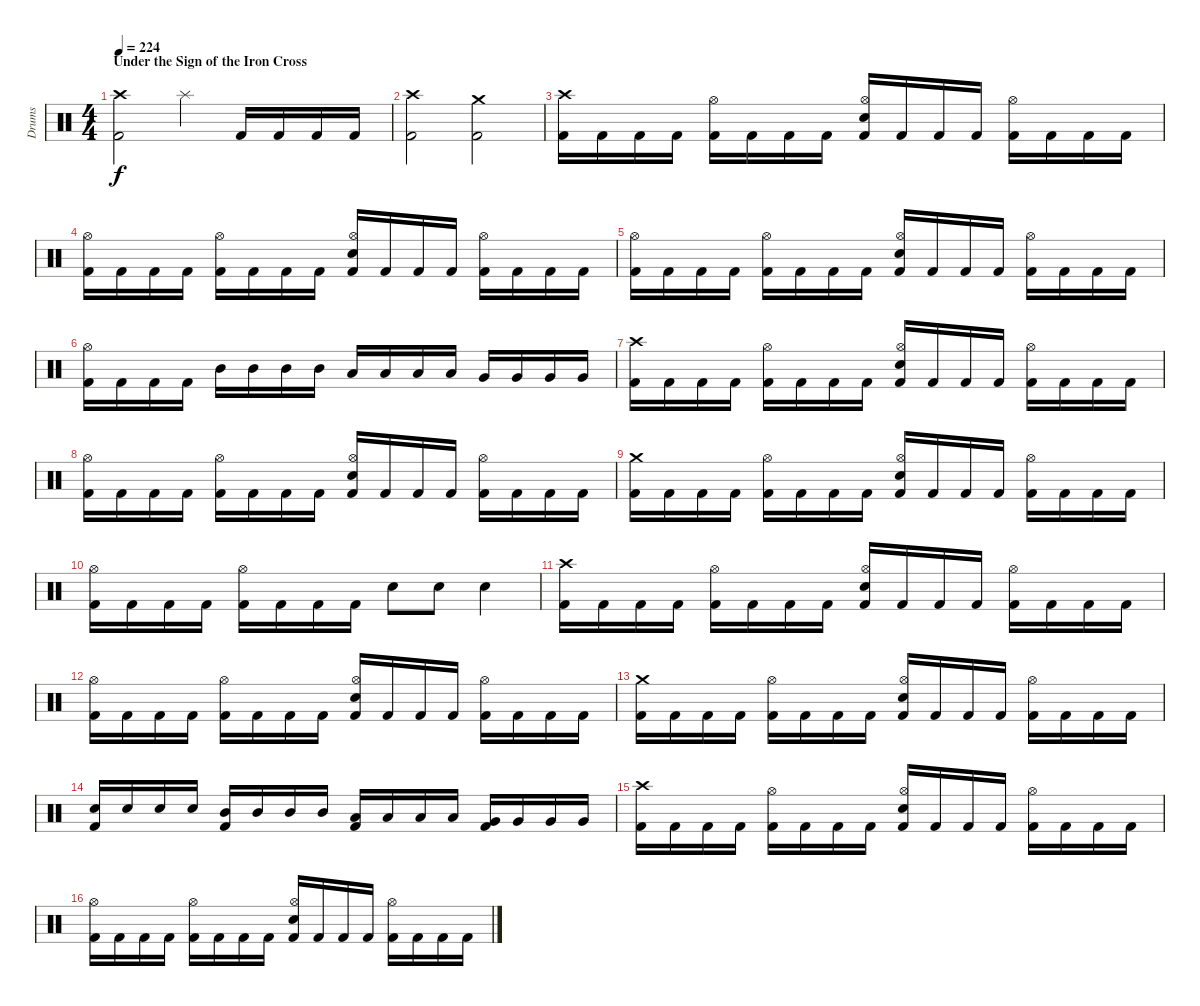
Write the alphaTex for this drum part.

\track ("Drums" "Drums") {instrument percussion}
\staff {score}
\articulation defaults
\ts (4 4)
\section ("" "Under the Sign of the Iron Cross")
\tempo 224
\clef neutral
\ks c
("Crash high (hit)" "Kick (hit) 2").2{dy f} "Splash (hit)".4 "Kick (hit) 2".16 "Kick (hit) 2".16 "Kick (hit) 2".16 "Kick (hit) 2".16 |
("Crash high (hit)" "Kick (hit) 2").2 ("Crash medium (hit)" "Kick (hit) 2").2 |
("Crash high (hit)" "Kick (hit) 2").16 "Kick (hit) 2".16 "Kick (hit) 2".16 "Kick (hit) 2".16 ("Hi-Hat (open)" "Kick (hit) 2").16 "Kick (hit) 2".16 "Kick (hit) 2".16 "Kick (hit) 2".16 ("Hi-Hat (open)" "Electric Snare (hit)" "Kick (hit) 2").16 "Kick (hit) 2".16 "Kick (hit) 2".16 "Kick (hit) 2".16 ("Hi-Hat (open)" "Kick (hit) 2").16 "Kick (hit) 2".16 "Kick (hit) 2".16 "Kick (hit) 2".16 |
("Hi-Hat (open)" "Kick (hit) 2").16 "Kick (hit) 2".16 "Kick (hit) 2".16 "Kick (hit) 2".16 ("Hi-Hat (open)" "Kick (hit) 2").16 "Kick (hit) 2".16 "Kick (hit) 2".16 "Kick (hit) 2".16 ("Hi-Hat (open)" "Electric Snare (hit)" "Kick (hit) 2").16 "Kick (hit) 2".16 "Kick (hit) 2".16 "Kick (hit) 2".16 ("Hi-Hat (open)" "Kick (hit) 2").16 "Kick (hit) 2".16 "Kick (hit) 2".16 "Kick (hit) 2".16 |
("Hi-Hat (open)" "Kick (hit) 2").16 "Kick (hit) 2".16 "Kick (hit) 2".16 "Kick (hit) 2".16 ("Hi-Hat (open)" "Kick (hit) 2").16 "Kick (hit) 2".16 "Kick (hit) 2".16 "Kick (hit) 2".16 ("Hi-Hat (open)" "Electric Snare (hit)" "Kick (hit) 2").16 "Kick (hit) 2".16 "Kick (hit) 2".16 "Kick (hit) 2".16 ("Hi-Hat (open)" "Kick (hit) 2").16 "Kick (hit) 2".16 "Kick (hit) 2".16 "Kick (hit) 2".16 |
("Hi-Hat (open)" "Kick (hit) 2").16 "Kick (hit) 2".16 "Kick (hit) 2".16 "Kick (hit) 2".16 "Mid Tom (hit)".16 "Mid Tom (hit)".16 "Mid Tom (hit)".16 "Mid Tom (hit)".16 "Low Tom (hit)".16 "Low Tom (hit)".16 "Low Tom (hit)".16 "Low Tom (hit)".16 "Very Low Tom (hit)".16 "Very Low Tom (hit)".16 "Very Low Tom (hit)".16 "Very Low Tom (hit)".16 |
("Crash high (hit)" "Kick (hit) 2").16 "Kick (hit) 2".16 "Kick (hit) 2".16 "Kick (hit) 2".16 ("Hi-Hat (open)" "Kick (hit) 2").16 "Kick (hit) 2".16 "Kick (hit) 2".16 "Kick (hit) 2".16 ("Hi-Hat (open)" "Electric Snare (hit)" "Kick (hit) 2").16 "Kick (hit) 2".16 "Kick (hit) 2".16 "Kick (hit) 2".16 ("Hi-Hat (open)" "Kick (hit) 2").16 "Kick (hit) 2".16 "Kick (hit) 2".16 "Kick (hit) 2".16 |
("Hi-Hat (open)" "Kick (hit) 2").16 "Kick (hit) 2".16 "Kick (hit) 2".16 "Kick (hit) 2".16 ("Hi-Hat (open)" "Kick (hit) 2").16 "Kick (hit) 2".16 "Kick (hit) 2".16 "Kick (hit) 2".16 ("Hi-Hat (open)" "Electric Snare (hit)" "Kick (hit) 2").16 "Kick (hit) 2".16 "Kick (hit) 2".16 "Kick (hit) 2".16 ("Hi-Hat (open)" "Kick (hit) 2").16 "Kick (hit) 2".16 "Kick (hit) 2".16 "Kick (hit) 2".16 |
("Crash medium (hit)" "Kick (hit) 2").16 "Kick (hit) 2".16 "Kick (hit) 2".16 "Kick (hit) 2".16 ("Hi-Hat (open)" "Kick (hit) 2").16 "Kick (hit) 2".16 "Kick (hit) 2".16 "Kick (hit) 2".16 ("Hi-Hat (open)" "Electric Snare (hit)" "Kick (hit) 2").16 "Kick (hit) 2".16 "Kick (hit) 2".16 "Kick (hit) 2".16 ("Hi-Hat (open)" "Kick (hit) 2").16 "Kick (hit) 2".16 "Kick (hit) 2".16 "Kick (hit) 2".16 |
("Hi-Hat (open)" "Kick (hit) 2").16 "Kick (hit) 2".16 "Kick (hit) 2".16 "Kick (hit) 2".16 ("Hi-Hat (open)" "Kick (hit) 2").16 "Kick (hit) 2".16 "Kick (hit) 2".16 "Kick (hit) 2".16 "Electric Snare (hit)".8 "Electric Snare (hit)".8 "Electric Snare (hit)".4 |
("Crash high (hit)" "Kick (hit) 2").16 "Kick (hit) 2".16 "Kick (hit) 2".16 "Kick (hit) 2".16 ("Hi-Hat (open)" "Kick (hit) 2").16 "Kick (hit) 2".16 "Kick (hit) 2".16 "Kick (hit) 2".16 ("Hi-Hat (open)" "Electric Snare (hit)" "Kick (hit) 2").16 "Kick (hit) 2".16 "Kick (hit) 2".16 "Kick (hit) 2".16 ("Hi-Hat (open)" "Kick (hit) 2").16 "Kick (hit) 2".16 "Kick (hit) 2".16 "Kick (hit) 2".16 |
("Hi-Hat (open)" "Kick (hit) 2").16 "Kick (hit) 2".16 "Kick (hit) 2".16 "Kick (hit) 2".16 ("Hi-Hat (open)" "Kick (hit) 2").16 "Kick (hit) 2".16 "Kick (hit) 2".16 "Kick (hit) 2".16 ("Hi-Hat (open)" "Electric Snare (hit)" "Kick (hit) 2").16 "Kick (hit) 2".16 "Kick (hit) 2".16 "Kick (hit) 2".16 ("Hi-Hat (open)" "Kick (hit) 2").16 "Kick (hit) 2".16 "Kick (hit) 2".16 "Kick (hit) 2".16 |
("Crash medium (hit)" "Kick (hit) 2").16 "Kick (hit) 2".16 "Kick (hit) 2".16 "Kick (hit) 2".16 ("Hi-Hat (open)" "Kick (hit) 2").16 "Kick (hit) 2".16 "Kick (hit) 2".16 "Kick (hit) 2".16 ("Hi-Hat (open)" "Electric Snare (hit)" "Kick (hit) 2").16 "Kick (hit) 2".16 "Kick (hit) 2".16 "Kick (hit) 2".16 ("Hi-Hat (open)" "Kick (hit) 2").16 "Kick (hit) 2".16 "Kick (hit) 2".16 "Kick (hit) 2".16 |
("Electric Snare (hit)" "Kick (hit) 2").16 "Electric Snare (hit)".16 "Electric Snare (hit)".16 "Electric Snare (hit)".16 ("Mid Tom (hit)" "Kick (hit) 2").16 "Mid Tom (hit)".16 "Mid Tom (hit)".16 "Mid Tom (hit)".16 ("Low Tom (hit)" "Kick (hit) 2").16 "Low Tom (hit)".16 "Low Tom (hit)".16 "Low Tom (hit)".16 ("Very Low Tom (hit)" "Kick (hit) 2").16 "Very Low Tom (hit)".16 "Very Low Tom (hit)".16 "Very Low Tom (hit)".16 |
("Crash high (hit)" "Kick (hit) 2").16 "Kick (hit) 2".16 "Kick (hit) 2".16 "Kick (hit) 2".16 ("Hi-Hat (open)" "Kick (hit) 2").16 "Kick (hit) 2".16 "Kick (hit) 2".16 "Kick (hit) 2".16 ("Hi-Hat (open)" "Electric Snare (hit)" "Kick (hit) 2").16 "Kick (hit) 2".16 "Kick (hit) 2".16 "Kick (hit) 2".16 ("Hi-Hat (open)" "Kick (hit) 2").16 "Kick (hit) 2".16 "Kick (hit) 2".16 "Kick (hit) 2".16 |
("Hi-Hat (open)" "Kick (hit) 2").16 "Kick (hit) 2".16 "Kick (hit) 2".16 "Kick (hit) 2".16 ("Hi-Hat (open)" "Kick (hit) 2").16 "Kick (hit) 2".16 "Kick (hit) 2".16 "Kick (hit) 2".16 ("Hi-Hat (open)" "Electric Snare (hit)" "Kick (hit) 2").16 "Kick (hit) 2".16 "Kick (hit) 2".16 "Kick (hit) 2".16 ("Hi-Hat (open)" "Kick (hit) 2").16 "Kick (hit) 2".16 "Kick (hit) 2".16 "Kick (hit) 2".16
